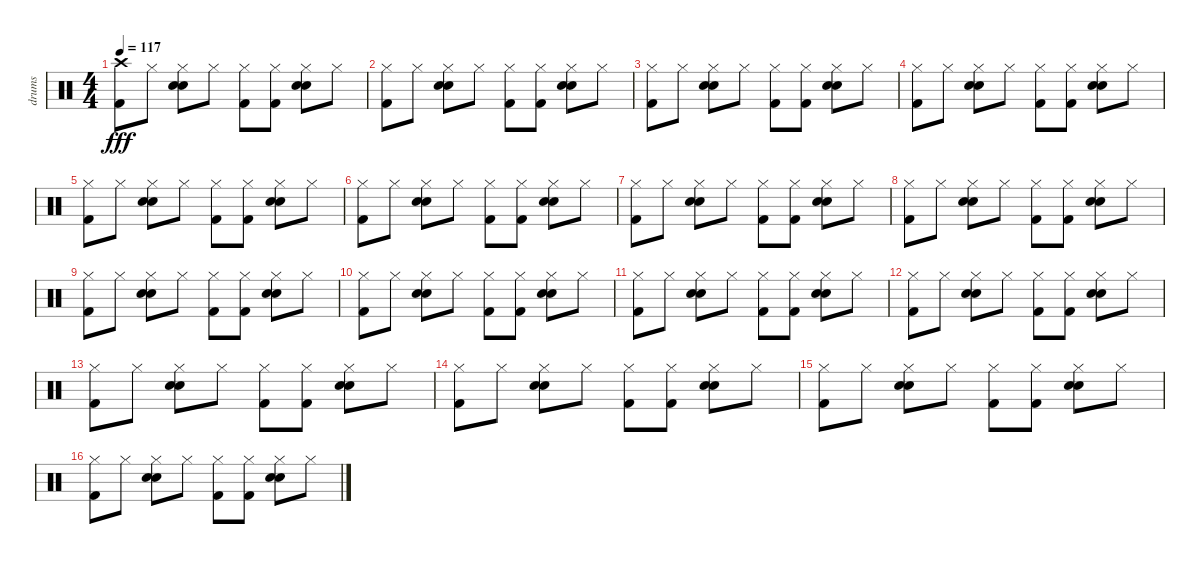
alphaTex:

\track ("drums" "drums") {instrument percussion}
\staff {score}
\articulation defaults
\ts (4 4)
\tempo 117
\clef neutral
\ks c
("Kick (hit) 2" "Crash high (hit)").8{dy fff} "Hi-Hat (closed)".8 ("Hi-Hat (closed)" "Electric Snare (hit)" "Electric Snare (hit)").8 "Hi-Hat (closed)".8 ("Kick (hit) 2" "Hi-Hat (closed)").8 ("Kick (hit) 2" "Hi-Hat (closed)").8 ("Hi-Hat (closed)" "Electric Snare (hit)" "Electric Snare (hit)").8 "Hi-Hat (closed)".8 |
("Kick (hit) 2" "Hi-Hat (closed)").8 "Hi-Hat (closed)".8 ("Hi-Hat (closed)" "Electric Snare (hit)" "Electric Snare (hit)").8 "Hi-Hat (closed)".8 ("Kick (hit) 2" "Hi-Hat (closed)").8 ("Kick (hit) 2" "Hi-Hat (closed)").8 ("Hi-Hat (closed)" "Electric Snare (hit)" "Electric Snare (hit)").8 "Hi-Hat (closed)".8 |
("Kick (hit) 2" "Hi-Hat (closed)").8 "Hi-Hat (closed)".8 ("Hi-Hat (closed)" "Electric Snare (hit)" "Electric Snare (hit)").8 "Hi-Hat (closed)".8 ("Kick (hit) 2" "Hi-Hat (closed)").8 ("Kick (hit) 2" "Hi-Hat (closed)").8 ("Hi-Hat (closed)" "Electric Snare (hit)" "Electric Snare (hit)").8 "Hi-Hat (closed)".8 |
("Kick (hit) 2" "Hi-Hat (closed)").8 "Hi-Hat (closed)".8 ("Hi-Hat (closed)" "Electric Snare (hit)" "Electric Snare (hit)").8 "Hi-Hat (closed)".8 ("Kick (hit) 2" "Hi-Hat (closed)").8 ("Kick (hit) 2" "Hi-Hat (closed)").8 ("Hi-Hat (closed)" "Electric Snare (hit)" "Electric Snare (hit)").8 "Hi-Hat (closed)".8 |
("Kick (hit) 2" "Hi-Hat (closed)").8 "Hi-Hat (closed)".8 ("Hi-Hat (closed)" "Electric Snare (hit)" "Electric Snare (hit)").8 "Hi-Hat (closed)".8 ("Kick (hit) 2" "Hi-Hat (closed)").8 ("Kick (hit) 2" "Hi-Hat (closed)").8 ("Hi-Hat (closed)" "Electric Snare (hit)" "Electric Snare (hit)").8 "Hi-Hat (closed)".8 |
("Kick (hit) 2" "Hi-Hat (closed)").8 "Hi-Hat (closed)".8 ("Hi-Hat (closed)" "Electric Snare (hit)" "Electric Snare (hit)").8 "Hi-Hat (closed)".8 ("Kick (hit) 2" "Hi-Hat (closed)").8 ("Kick (hit) 2" "Hi-Hat (closed)").8 ("Hi-Hat (closed)" "Electric Snare (hit)" "Electric Snare (hit)").8 "Hi-Hat (closed)".8 |
("Kick (hit) 2" "Hi-Hat (closed)").8 "Hi-Hat (closed)".8 ("Hi-Hat (closed)" "Electric Snare (hit)" "Electric Snare (hit)").8 "Hi-Hat (closed)".8 ("Kick (hit) 2" "Hi-Hat (closed)").8 ("Kick (hit) 2" "Hi-Hat (closed)").8 ("Hi-Hat (closed)" "Electric Snare (hit)" "Electric Snare (hit)").8 "Hi-Hat (closed)".8 |
("Kick (hit) 2" "Hi-Hat (closed)").8 "Hi-Hat (closed)".8 ("Hi-Hat (closed)" "Electric Snare (hit)" "Electric Snare (hit)").8 "Hi-Hat (closed)".8 ("Kick (hit) 2" "Hi-Hat (closed)").8 ("Kick (hit) 2" "Hi-Hat (closed)").8 ("Hi-Hat (closed)" "Electric Snare (hit)" "Electric Snare (hit)").8 "Hi-Hat (closed)".8 |
("Kick (hit) 2" "Hi-Hat (closed)").8 "Hi-Hat (closed)".8 ("Hi-Hat (closed)" "Electric Snare (hit)" "Electric Snare (hit)").8 "Hi-Hat (closed)".8 ("Kick (hit) 2" "Hi-Hat (closed)").8 ("Kick (hit) 2" "Hi-Hat (closed)").8 ("Hi-Hat (closed)" "Electric Snare (hit)" "Electric Snare (hit)").8 "Hi-Hat (closed)".8 |
("Kick (hit) 2" "Hi-Hat (closed)").8 "Hi-Hat (closed)".8 ("Hi-Hat (closed)" "Electric Snare (hit)" "Electric Snare (hit)").8 "Hi-Hat (closed)".8 ("Kick (hit) 2" "Hi-Hat (closed)").8 ("Kick (hit) 2" "Hi-Hat (closed)").8 ("Hi-Hat (closed)" "Electric Snare (hit)" "Electric Snare (hit)").8 "Hi-Hat (closed)".8 |
("Kick (hit) 2" "Hi-Hat (closed)").8 "Hi-Hat (closed)".8 ("Hi-Hat (closed)" "Electric Snare (hit)" "Electric Snare (hit)").8 "Hi-Hat (closed)".8 ("Kick (hit) 2" "Hi-Hat (closed)").8 ("Kick (hit) 2" "Hi-Hat (closed)").8 ("Hi-Hat (closed)" "Electric Snare (hit)" "Electric Snare (hit)").8 "Hi-Hat (closed)".8 |
("Kick (hit) 2" "Hi-Hat (closed)").8 "Hi-Hat (closed)".8 ("Hi-Hat (closed)" "Electric Snare (hit)" "Electric Snare (hit)").8 "Hi-Hat (closed)".8 ("Kick (hit) 2" "Hi-Hat (closed)").8 ("Kick (hit) 2" "Hi-Hat (closed)").8 ("Hi-Hat (closed)" "Electric Snare (hit)" "Electric Snare (hit)").8 "Hi-Hat (closed)".8 |
("Kick (hit) 2" "Hi-Hat (closed)").8 "Hi-Hat (closed)".8 ("Hi-Hat (closed)" "Electric Snare (hit)" "Electric Snare (hit)").8 "Hi-Hat (closed)".8 ("Kick (hit) 2" "Hi-Hat (closed)").8 ("Kick (hit) 2" "Hi-Hat (closed)").8 ("Hi-Hat (closed)" "Electric Snare (hit)" "Electric Snare (hit)").8 "Hi-Hat (closed)".8 |
("Kick (hit) 2" "Hi-Hat (closed)").8 "Hi-Hat (closed)".8 ("Hi-Hat (closed)" "Electric Snare (hit)" "Electric Snare (hit)").8 "Hi-Hat (closed)".8 ("Kick (hit) 2" "Hi-Hat (closed)").8 ("Kick (hit) 2" "Hi-Hat (closed)").8 ("Hi-Hat (closed)" "Electric Snare (hit)" "Electric Snare (hit)").8 "Hi-Hat (closed)".8 |
("Kick (hit) 2" "Hi-Hat (closed)").8 "Hi-Hat (closed)".8 ("Hi-Hat (closed)" "Electric Snare (hit)" "Electric Snare (hit)").8 "Hi-Hat (closed)".8 ("Kick (hit) 2" "Hi-Hat (closed)").8 ("Kick (hit) 2" "Hi-Hat (closed)").8 ("Hi-Hat (closed)" "Electric Snare (hit)" "Electric Snare (hit)").8 "Hi-Hat (closed)".8 |
("Kick (hit) 2" "Hi-Hat (closed)").8 "Hi-Hat (closed)".8 ("Hi-Hat (closed)" "Electric Snare (hit)" "Electric Snare (hit)").8 "Hi-Hat (closed)".8 ("Kick (hit) 2" "Hi-Hat (closed)").8 ("Kick (hit) 2" "Hi-Hat (closed)").8 ("Hi-Hat (closed)" "Electric Snare (hit)" "Electric Snare (hit)").8 "Hi-Hat (closed)".8
